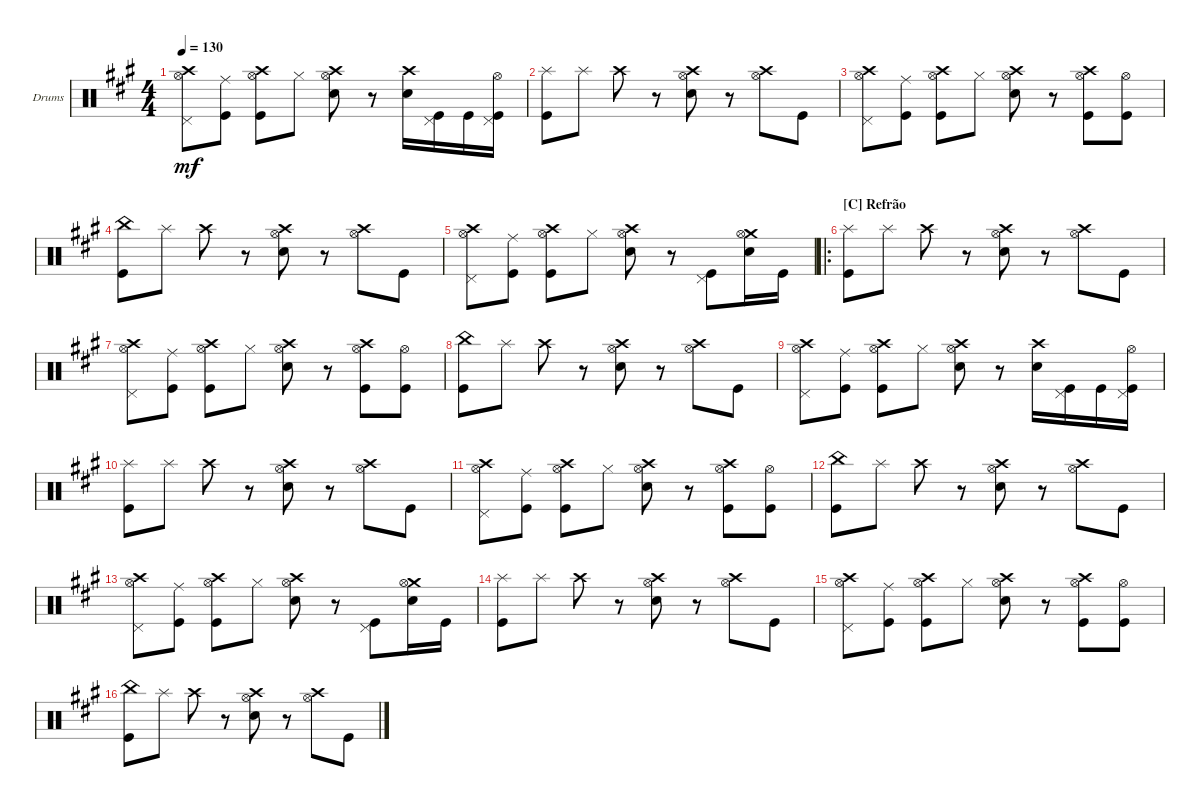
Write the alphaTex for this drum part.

\defaultSystemsLayout 4
\bracketExtendMode groupsimilarinstruments
\firstSystemTrackNameOrientation horizontal
\otherSystemsTrackNameOrientation horizontal
\track ("Bateria" "Drums") {instrument percussion}
\staff {score}
\articulation defaults
\ts (4 4)
\tempo 130
\clef neutral
\ks a
("Pedal Hi-Hat (hit)" "Hi-Hat (open)" "Crash high (hit)").8{dy mf} ("Kick (hit)" "Ride (middle)").8 ("Kick (hit)" "Hi-Hat (open)" "Crash high (hit)").8 "Hi-Hat (closed)".8 ("Snare (hit) 2" "Hi-Hat (open)" "Crash high (hit)").8 r.8 ("Crash high (hit)" "Snare (hit) 2").16 ("Kick (hit)" "Pedal Hi-Hat (hit)").16 "Kick (hit)".16 ("Hi-Hat (open)" "Kick (hit)" "Pedal Hi-Hat (hit)").16 |
("Kick (hit)" "Splash (hit)").8 "Splash (hit)".8 "Crash high (hit)".8 r.8 ("Snare (hit) 2" "Hi-Hat (open)" "Crash high (hit)").8 r.8 ("Hi-Hat (open)" "Crash high (hit)").8 "Kick (hit)".8 |
("Pedal Hi-Hat (hit)" "Hi-Hat (open)" "Crash high (hit)").8 ("Kick (hit)" "Ride (middle)").8 ("Kick (hit)" "Hi-Hat (open)" "Crash high (hit)").8 "Hi-Hat (closed)".8 ("Snare (hit) 2" "Hi-Hat (open)" "Crash high (hit)").8 r.8 ("Kick (hit)" "Hi-Hat (open)" "Crash high (hit)").8 ("Kick (hit)" "Hi-Hat (open)").8 |
("Kick (hit)" "China (hit)").8 "Splash (hit)".8 "Crash high (hit)".8 r.8 ("Snare (hit) 2" "Hi-Hat (open)" "Crash high (hit)").8 r.8 ("Hi-Hat (open)" "Crash high (hit)").8 "Kick (hit)".8 |
("Pedal Hi-Hat (hit)" "Hi-Hat (open)" "Crash high (hit)").8 ("Kick (hit)" "Ride (middle)").8 ("Kick (hit)" "Hi-Hat (open)" "Crash high (hit)").8 "Hi-Hat (closed)".8 ("Snare (hit) 2" "Hi-Hat (open)" "Crash high (hit)").8 r.8 ("Kick (hit)" "Pedal Hi-Hat (hit)").8 ("Snare (hit) 2" "Crash medium (hit)" "Hi-Hat (open)").16 "Kick (hit)".16 |
\ro
\section ("C" "Refrão")
("Kick (hit)" "Splash (hit)").8 "Splash (hit)".8 "Crash high (hit)".8 r.8 ("Snare (hit) 2" "Hi-Hat (open)" "Crash high (hit)").8 r.8 ("Hi-Hat (open)" "Crash high (hit)").8 "Kick (hit)".8 |
("Pedal Hi-Hat (hit)" "Hi-Hat (open)" "Crash high (hit)").8 ("Kick (hit)" "Ride (middle)").8 ("Kick (hit)" "Hi-Hat (open)" "Crash high (hit)").8 "Hi-Hat (closed)".8 ("Snare (hit) 2" "Hi-Hat (open)" "Crash high (hit)").8 r.8 ("Kick (hit)" "Hi-Hat (open)" "Crash high (hit)").8 ("Kick (hit)" "Hi-Hat (open)").8 |
("Kick (hit)" "China (hit)").8 "Splash (hit)".8 "Crash high (hit)".8 r.8 ("Snare (hit) 2" "Hi-Hat (open)" "Crash high (hit)").8 r.8 ("Hi-Hat (open)" "Crash high (hit)").8 "Kick (hit)".8 |
("Pedal Hi-Hat (hit)" "Hi-Hat (open)" "Crash high (hit)").8 ("Kick (hit)" "Ride (middle)").8 ("Kick (hit)" "Hi-Hat (open)" "Crash high (hit)").8 "Hi-Hat (closed)".8 ("Snare (hit) 2" "Hi-Hat (open)" "Crash high (hit)").8 r.8 ("Crash high (hit)" "Snare (hit) 2").16 ("Kick (hit)" "Pedal Hi-Hat (hit)").16 "Kick (hit)".16 ("Hi-Hat (open)" "Kick (hit)" "Pedal Hi-Hat (hit)").16 |
("Kick (hit)" "Splash (hit)").8 "Splash (hit)".8 "Crash high (hit)".8 r.8 ("Snare (hit) 2" "Hi-Hat (open)" "Crash high (hit)").8 r.8 ("Hi-Hat (open)" "Crash high (hit)").8 "Kick (hit)".8 |
("Pedal Hi-Hat (hit)" "Hi-Hat (open)" "Crash high (hit)").8 ("Kick (hit)" "Ride (middle)").8 ("Kick (hit)" "Hi-Hat (open)" "Crash high (hit)").8 "Hi-Hat (closed)".8 ("Snare (hit) 2" "Hi-Hat (open)" "Crash high (hit)").8 r.8 ("Kick (hit)" "Hi-Hat (open)" "Crash high (hit)").8 ("Kick (hit)" "Hi-Hat (open)").8 |
("Kick (hit)" "China (hit)").8 "Splash (hit)".8 "Crash high (hit)".8 r.8 ("Snare (hit) 2" "Hi-Hat (open)" "Crash high (hit)").8 r.8 ("Hi-Hat (open)" "Crash high (hit)").8 "Kick (hit)".8 |
("Pedal Hi-Hat (hit)" "Hi-Hat (open)" "Crash high (hit)").8 ("Kick (hit)" "Ride (middle)").8 ("Kick (hit)" "Hi-Hat (open)" "Crash high (hit)").8 "Hi-Hat (closed)".8 ("Snare (hit) 2" "Hi-Hat (open)" "Crash high (hit)").8 r.8 ("Kick (hit)" "Pedal Hi-Hat (hit)").8 ("Snare (hit) 2" "Crash medium (hit)" "Hi-Hat (open)").16 "Kick (hit)".16 |
("Kick (hit)" "Splash (hit)").8 "Splash (hit)".8 "Crash high (hit)".8 r.8 ("Snare (hit) 2" "Hi-Hat (open)" "Crash high (hit)").8 r.8 ("Hi-Hat (open)" "Crash high (hit)").8 "Kick (hit)".8 |
("Pedal Hi-Hat (hit)" "Hi-Hat (open)" "Crash high (hit)").8 ("Kick (hit)" "Ride (middle)").8 ("Kick (hit)" "Hi-Hat (open)" "Crash high (hit)").8 "Hi-Hat (closed)".8 ("Snare (hit) 2" "Hi-Hat (open)" "Crash high (hit)").8 r.8 ("Kick (hit)" "Hi-Hat (open)" "Crash high (hit)").8 ("Kick (hit)" "Hi-Hat (open)").8 |
("Kick (hit)" "China (hit)").8 "Splash (hit)".8 "Crash high (hit)".8 r.8 ("Snare (hit) 2" "Hi-Hat (open)" "Crash high (hit)").8 r.8 ("Hi-Hat (open)" "Crash high (hit)").8 "Kick (hit)".8
